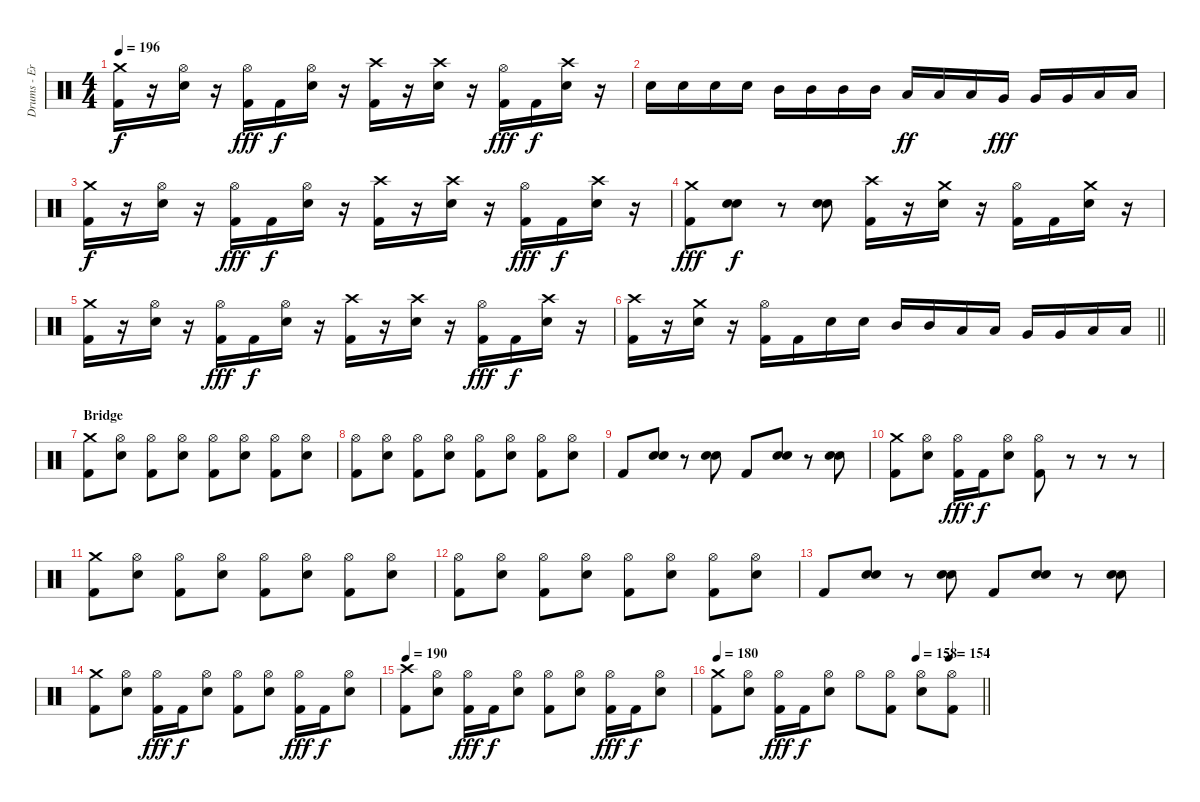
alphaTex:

\track ("Drums - Erik Sandin" "Drums - Er") {instrument percussion}
\staff {score}
\articulation defaults
\ts (4 4)
\tempo 196
\clef neutral
\ks c
("Crash medium (hit)" "Kick (hit) 2").16{dy f} r.16 ("Hi-Hat (open)" "Electric Snare (hit)").16 r.16 ("Hi-Hat (open)" "Kick (hit) 2").16{dy fff} "Kick (hit) 2".16{dy f} ("Hi-Hat (open)" "Electric Snare (hit)").16 r.16 ("Crash high (hit)" "Kick (hit) 2").16 r.16 ("Crash high (hit)" "Electric Snare (hit)").16 r.16 ("Hi-Hat (open)" "Kick (hit) 2").16{dy fff} "Kick (hit) 2".16{dy f} ("Crash high (hit)" "Electric Snare (hit)").16 r.16 |
"Electric Snare (hit)".16 "Electric Snare (hit)".16 "Electric Snare (hit)".16 "Electric Snare (hit)".16 "Mid Tom (hit)".16 "Mid Tom (hit)".16 "Mid Tom (hit)".16 "Mid Tom (hit)".16 "Low Tom (hit)".16{dy ff} "Low Tom (hit)".16 "Low Tom (hit)".16 "Very Low Tom (hit)".16{dy fff} "Very Low Tom (hit)".16 "Very Low Tom (hit)".16 "Low Floor Tom (hit)".16 "Low Floor Tom (hit)".16 |
("Crash medium (hit)" "Kick (hit) 2").16{dy f} r.16 ("Hi-Hat (open)" "Electric Snare (hit)").16 r.16 ("Hi-Hat (open)" "Kick (hit) 2").16{dy fff} "Kick (hit) 2".16{dy f} ("Hi-Hat (open)" "Electric Snare (hit)").16 r.16 ("Crash high (hit)" "Kick (hit) 2").16 r.16 ("Crash high (hit)" "Electric Snare (hit)").16 r.16 ("Hi-Hat (open)" "Kick (hit) 2").16{dy fff} "Kick (hit) 2".16{dy f} ("Crash high (hit)" "Electric Snare (hit)").16 r.16 |
("Crash medium (hit)" "Kick (hit) 2").8{dy fff} ("Snare (hit) 2" "Electric Snare (hit)").8{dy f} r.8 ("Snare (hit) 2" "Electric Snare (hit)").8 ("Crash high (hit)" "Kick (hit) 2").16 r.16 ("Crash medium (hit)" "Electric Snare (hit)").16 r.16 ("Hi-Hat (open)" "Kick (hit) 2").16 "Kick (hit) 2".16 ("Crash medium (hit)" "Electric Snare (hit)").16 r.16 |
("Crash medium (hit)" "Kick (hit) 2").16 r.16 ("Hi-Hat (open)" "Electric Snare (hit)").16 r.16 ("Hi-Hat (open)" "Kick (hit) 2").16{dy fff} "Kick (hit) 2".16{dy f} ("Hi-Hat (open)" "Electric Snare (hit)").16 r.16 ("Crash high (hit)" "Kick (hit) 2").16 r.16 ("Crash high (hit)" "Electric Snare (hit)").16 r.16 ("Hi-Hat (open)" "Kick (hit) 2").16{dy fff} "Kick (hit) 2".16{dy f} ("Crash high (hit)" "Electric Snare (hit)").16 r.16 |
\barLineRight lightlight
("Crash high (hit)" "Kick (hit) 2").16 r.16 ("Crash medium (hit)" "Electric Snare (hit)").16 r.16 ("Hi-Hat (open)" "Kick (hit) 2").16 "Kick (hit) 2".16 "Electric Snare (hit)".16 "Electric Snare (hit)".16 "Mid Tom (hit)".16 "Mid Tom (hit)".16 "Low Tom (hit)".16 "Low Tom (hit)".16 "Very Low Tom (hit)".16 "Very Low Tom (hit)".16 "Low Floor Tom (hit)".16 "Low Floor Tom (hit)".16 |
\section ("" "Bridge")
("Crash medium (hit)" "Kick (hit) 2").8 ("Hi-Hat (open)" "Electric Snare (hit)").8 ("Hi-Hat (open)" "Kick (hit) 2").8 ("Hi-Hat (open)" "Electric Snare (hit)").8 ("Hi-Hat (open)" "Kick (hit) 2").8 ("Hi-Hat (open)" "Electric Snare (hit)").8 ("Hi-Hat (open)" "Kick (hit) 2").8 ("Hi-Hat (open)" "Electric Snare (hit)").8 |
("Hi-Hat (open)" "Kick (hit) 2").8 ("Hi-Hat (open)" "Electric Snare (hit)").8 ("Hi-Hat (open)" "Kick (hit) 2").8 ("Hi-Hat (open)" "Electric Snare (hit)").8 ("Hi-Hat (open)" "Kick (hit) 2").8 ("Hi-Hat (open)" "Electric Snare (hit)").8 ("Hi-Hat (open)" "Kick (hit) 2").8 ("Hi-Hat (open)" "Electric Snare (hit)").8 |
"Kick (hit) 2".8 ("Snare (hit) 2" "Electric Snare (hit)").8 r.8 ("Snare (hit) 2" "Electric Snare (hit)").8 "Kick (hit) 2".8 ("Snare (hit) 2" "Electric Snare (hit)").8 r.8 ("Snare (hit) 2" "Electric Snare (hit)").8 |
("Crash medium (hit)" "Kick (hit) 2").8 ("Hi-Hat (open)" "Electric Snare (hit)").8 ("Hi-Hat (open)" "Kick (hit) 2").16{dy fff} "Kick (hit) 2".16{dy f} ("Hi-Hat (open)" "Electric Snare (hit)").8 ("Hi-Hat (open)" "Kick (hit) 2").8 r.8 r.8 r.8 |
("Crash medium (hit)" "Kick (hit) 2").8 ("Hi-Hat (open)" "Electric Snare (hit)").8 ("Hi-Hat (open)" "Kick (hit) 2").8 ("Hi-Hat (open)" "Electric Snare (hit)").8 ("Hi-Hat (open)" "Kick (hit) 2").8 ("Hi-Hat (open)" "Electric Snare (hit)").8 ("Hi-Hat (open)" "Kick (hit) 2").8 ("Hi-Hat (open)" "Electric Snare (hit)").8 |
("Hi-Hat (open)" "Kick (hit) 2").8 ("Hi-Hat (open)" "Electric Snare (hit)").8 ("Hi-Hat (open)" "Kick (hit) 2").8 ("Hi-Hat (open)" "Electric Snare (hit)").8 ("Hi-Hat (open)" "Kick (hit) 2").8 ("Hi-Hat (open)" "Electric Snare (hit)").8 ("Hi-Hat (open)" "Kick (hit) 2").8 ("Hi-Hat (open)" "Electric Snare (hit)").8 |
"Kick (hit) 2".8 ("Snare (hit) 2" "Electric Snare (hit)").8 r.8 ("Snare (hit) 2" "Electric Snare (hit)").8 "Kick (hit) 2".8 ("Snare (hit) 2" "Electric Snare (hit)").8 r.8 ("Snare (hit) 2" "Electric Snare (hit)").8 |
("Crash medium (hit)" "Kick (hit) 2").8 ("Hi-Hat (open)" "Electric Snare (hit)").8 ("Hi-Hat (open)" "Kick (hit) 2").16{dy fff} "Kick (hit) 2".16{dy f} ("Hi-Hat (open)" "Electric Snare (hit)").8 ("Hi-Hat (open)" "Kick (hit) 2").8 ("Hi-Hat (open)" "Electric Snare (hit)").8 ("Hi-Hat (open)" "Kick (hit) 2").16{dy fff} "Kick (hit) 2".16{dy f} ("Hi-Hat (open)" "Electric Snare (hit)").8 |
\tempo 190
("Crash high (hit)" "Kick (hit) 2").8 ("Hi-Hat (open)" "Electric Snare (hit)").8 ("Hi-Hat (open)" "Kick (hit) 2").16{dy fff} "Kick (hit) 2".16{dy f} ("Hi-Hat (open)" "Electric Snare (hit)").8 ("Hi-Hat (open)" "Kick (hit) 2").8 ("Hi-Hat (open)" "Electric Snare (hit)").8 ("Hi-Hat (open)" "Kick (hit) 2").16{dy fff} "Kick (hit) 2".16{dy f} ("Hi-Hat (open)" "Electric Snare (hit)").8 |
\tempo 180
\tempo (158 0.75)
\tempo (154 0.875)
\barLineRight lightlight
("Crash medium (hit)" "Kick (hit) 2").8 ("Hi-Hat (open)" "Electric Snare (hit)").8 ("Hi-Hat (open)" "Kick (hit) 2").16{dy fff} "Kick (hit) 2".16{dy f} ("Hi-Hat (open)" "Electric Snare (hit)").8 "Hi-Hat (open)".8 ("Hi-Hat (open)" "Kick (hit) 2").8 ("Hi-Hat (open)" "Electric Snare (hit)").8 ("Hi-Hat (open)" "Kick (hit) 2").8
